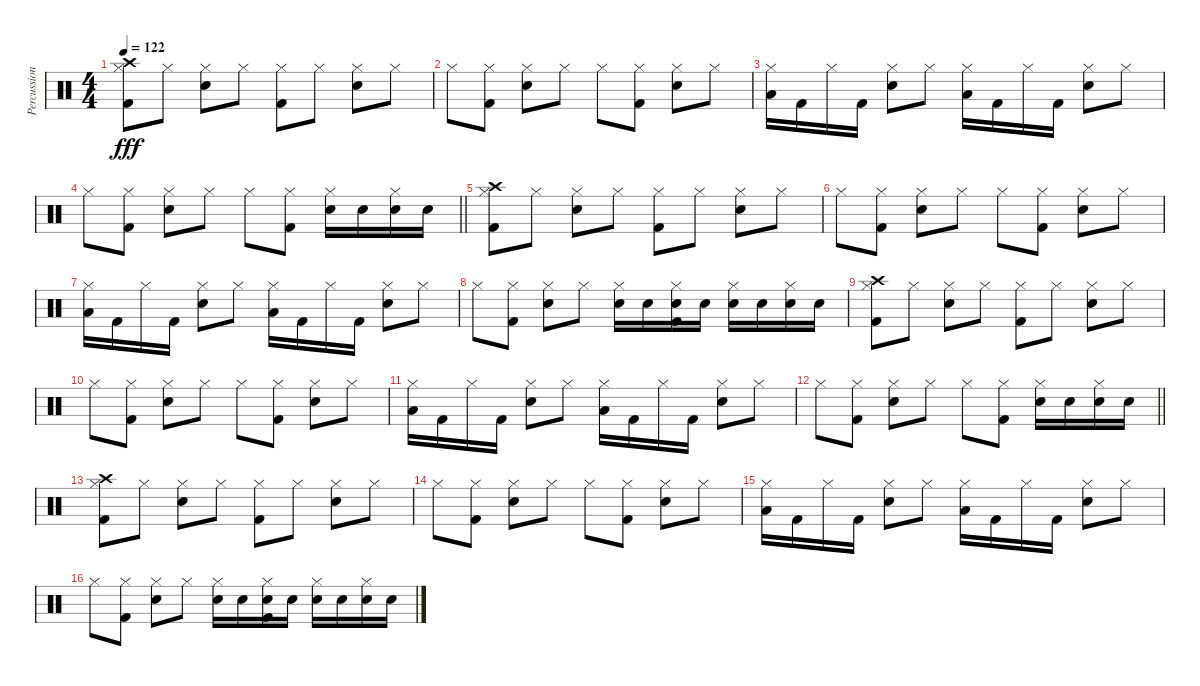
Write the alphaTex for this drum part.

\track ("Percussion" "Percussion") {instrument percussion}
\staff {score}
\articulation defaults
\ts (4 4)
\tempo 122
\clef neutral
\ks c
("Crash high (hit)" "Hi-Hat (closed)" "Kick (hit) 2").8{dy fff} "Hi-Hat (closed)".8 ("Hi-Hat (closed)" "Electric Snare (hit)").8 "Hi-Hat (closed)".8 ("Hi-Hat (closed)" "Kick (hit) 2").8 "Hi-Hat (closed)".8 ("Hi-Hat (closed)" "Electric Snare (hit)").8 "Hi-Hat (closed)".8 |
"Hi-Hat (closed)".8 ("Hi-Hat (closed)" "Kick (hit) 2").8 ("Hi-Hat (closed)" "Electric Snare (hit)").8 "Hi-Hat (closed)".8 "Hi-Hat (closed)".8 ("Hi-Hat (closed)" "Kick (hit) 2").8 ("Hi-Hat (closed)" "Electric Snare (hit)").8 "Hi-Hat (closed)".8 |
("Hi-Hat (closed)" "Low Tom (hit)").16 "Kick (hit) 2".16 "Hi-Hat (closed)".16 "Kick (hit) 2".16 ("Hi-Hat (closed)" "Electric Snare (hit)").8 "Hi-Hat (closed)".8 ("Hi-Hat (closed)" "Low Tom (hit)").16 "Kick (hit) 2".16 "Hi-Hat (closed)".16 "Kick (hit) 2".16 ("Hi-Hat (closed)" "Electric Snare (hit)").8 "Hi-Hat (closed)".8 |
\barLineRight lightlight "Hi-Hat (closed)".8
("Hi-Hat (closed)" "Kick (hit) 2").8 ("Hi-Hat (closed)" "Electric Snare (hit)").8 "Hi-Hat (closed)".8 "Hi-Hat (closed)".8 ("Hi-Hat (closed)" "Kick (hit) 2").8 ("Hi-Hat (closed)" "Electric Snare (hit)").16 "Electric Snare (hit)".16 ("Hi-Hat (closed)" "Electric Snare (hit)").16 "Electric Snare (hit)".16 |
("Crash high (hit)" "Hi-Hat (closed)" "Kick (hit) 2").8 "Hi-Hat (closed)".8 ("Hi-Hat (closed)" "Electric Snare (hit)").8 "Hi-Hat (closed)".8 ("Hi-Hat (closed)" "Kick (hit) 2").8 "Hi-Hat (closed)".8 ("Hi-Hat (closed)" "Electric Snare (hit)").8 "Hi-Hat (closed)".8 |
"Hi-Hat (closed)".8 ("Hi-Hat (closed)" "Kick (hit) 2").8 ("Hi-Hat (closed)" "Electric Snare (hit)").8 "Hi-Hat (closed)".8 "Hi-Hat (closed)".8 ("Hi-Hat (closed)" "Kick (hit) 2").8 ("Hi-Hat (closed)" "Electric Snare (hit)").8 "Hi-Hat (closed)".8 |
("Hi-Hat (closed)" "Low Tom (hit)").16 "Kick (hit) 2".16 "Hi-Hat (closed)".16 "Kick (hit) 2".16 ("Hi-Hat (closed)" "Electric Snare (hit)").8 "Hi-Hat (closed)".8 ("Hi-Hat (closed)" "Low Tom (hit)").16 "Kick (hit) 2".16 "Hi-Hat (closed)".16 "Kick (hit) 2".16 ("Hi-Hat (closed)" "Electric Snare (hit)").8 "Hi-Hat (closed)".8 |
"Hi-Hat (closed)".8 ("Hi-Hat (closed)" "Kick (hit) 2").8 ("Hi-Hat (closed)" "Electric Snare (hit)").8 "Hi-Hat (closed)".8 ("Hi-Hat (closed)" "Electric Snare (hit)").16 "Electric Snare (hit)".16 ("Hi-Hat (closed)" "Electric Snare (hit)" "Kick (hit) 2").16 "Electric Snare (hit)".16 ("Hi-Hat (closed)" "Electric Snare (hit)").16 "Electric Snare (hit)".16 ("Hi-Hat (closed)" "Electric Snare (hit)").16 "Electric Snare (hit)".16 |
("Crash high (hit)" "Hi-Hat (closed)" "Kick (hit) 2").8 "Hi-Hat (closed)".8 ("Hi-Hat (closed)" "Electric Snare (hit)").8 "Hi-Hat (closed)".8 ("Hi-Hat (closed)" "Kick (hit) 2").8 "Hi-Hat (closed)".8 ("Hi-Hat (closed)" "Electric Snare (hit)").8 "Hi-Hat (closed)".8 |
"Hi-Hat (closed)".8 ("Hi-Hat (closed)" "Kick (hit) 2").8 ("Hi-Hat (closed)" "Electric Snare (hit)").8 "Hi-Hat (closed)".8 "Hi-Hat (closed)".8 ("Hi-Hat (closed)" "Kick (hit) 2").8 ("Hi-Hat (closed)" "Electric Snare (hit)").8 "Hi-Hat (closed)".8 |
("Hi-Hat (closed)" "Low Tom (hit)").16 "Kick (hit) 2".16 "Hi-Hat (closed)".16 "Kick (hit) 2".16 ("Hi-Hat (closed)" "Electric Snare (hit)").8 "Hi-Hat (closed)".8 ("Hi-Hat (closed)" "Low Tom (hit)").16 "Kick (hit) 2".16 "Hi-Hat (closed)".16 "Kick (hit) 2".16 ("Hi-Hat (closed)" "Electric Snare (hit)").8 "Hi-Hat (closed)".8 |
\barLineRight lightlight "Hi-Hat (closed)".8
("Hi-Hat (closed)" "Kick (hit) 2").8 ("Hi-Hat (closed)" "Electric Snare (hit)").8 "Hi-Hat (closed)".8 "Hi-Hat (closed)".8 ("Hi-Hat (closed)" "Kick (hit) 2").8 ("Hi-Hat (closed)" "Electric Snare (hit)").16 "Electric Snare (hit)".16 ("Hi-Hat (closed)" "Electric Snare (hit)").16 "Electric Snare (hit)".16 |
("Crash high (hit)" "Hi-Hat (closed)" "Kick (hit) 2").8 "Hi-Hat (closed)".8 ("Hi-Hat (closed)" "Electric Snare (hit)").8 "Hi-Hat (closed)".8 ("Hi-Hat (closed)" "Kick (hit) 2").8 "Hi-Hat (closed)".8 ("Hi-Hat (closed)" "Electric Snare (hit)").8 "Hi-Hat (closed)".8 |
"Hi-Hat (closed)".8 ("Hi-Hat (closed)" "Kick (hit) 2").8 ("Hi-Hat (closed)" "Electric Snare (hit)").8 "Hi-Hat (closed)".8 "Hi-Hat (closed)".8 ("Hi-Hat (closed)" "Kick (hit) 2").8 ("Hi-Hat (closed)" "Electric Snare (hit)").8 "Hi-Hat (closed)".8 |
("Hi-Hat (closed)" "Low Tom (hit)").16 "Kick (hit) 2".16 "Hi-Hat (closed)".16 "Kick (hit) 2".16 ("Hi-Hat (closed)" "Electric Snare (hit)").8 "Hi-Hat (closed)".8 ("Hi-Hat (closed)" "Low Tom (hit)").16 "Kick (hit) 2".16 "Hi-Hat (closed)".16 "Kick (hit) 2".16 ("Hi-Hat (closed)" "Electric Snare (hit)").8 "Hi-Hat (closed)".8 |
"Hi-Hat (closed)".8 ("Hi-Hat (closed)" "Kick (hit) 2").8 ("Hi-Hat (closed)" "Electric Snare (hit)").8 "Hi-Hat (closed)".8 ("Hi-Hat (closed)" "Electric Snare (hit)").16 "Electric Snare (hit)".16 ("Hi-Hat (closed)" "Electric Snare (hit)" "Kick (hit) 2").16 "Electric Snare (hit)".16 ("Hi-Hat (closed)" "Electric Snare (hit)").16 "Electric Snare (hit)".16 ("Hi-Hat (closed)" "Electric Snare (hit)").16 "Electric Snare (hit)".16
